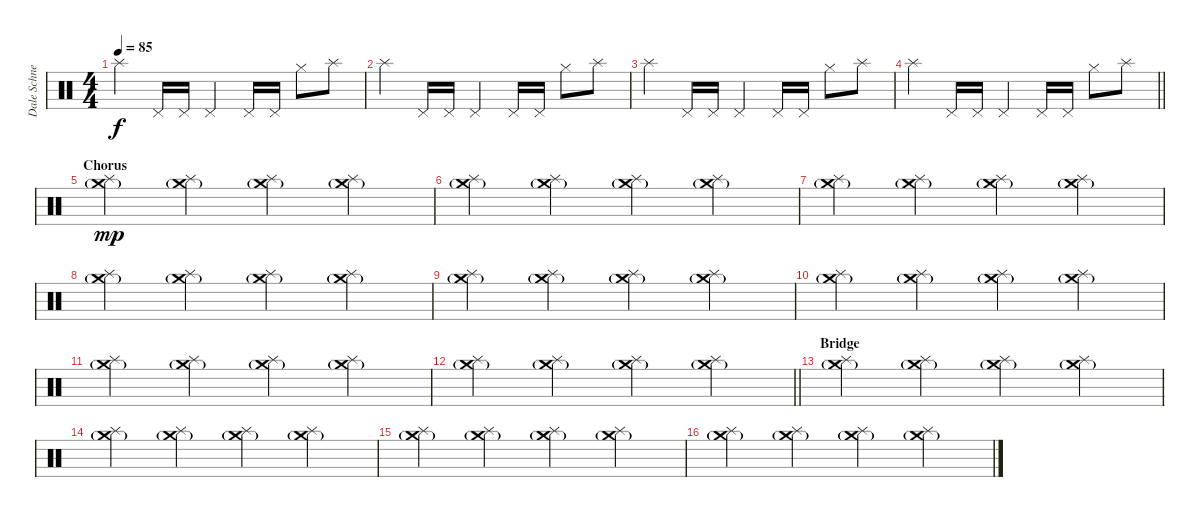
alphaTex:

\track ("Dale Schnettler (Drums)" "Dale Schne") {instrument percussion}
\staff {score}
\articulation defaults
\ts (4 4)
\tempo 85
\clef neutral
\ks c "Splash (hit)".4{dy f} "Pedal Hi-Hat (hit)".16 "Pedal Hi-Hat (hit)".16 "Pedal Hi-Hat (hit)".4 "Pedal Hi-Hat (hit)".16 "Pedal Hi-Hat (hit)".16 "Hi-Hat (closed)".8 "Splash (hit)".8
|
"Splash (hit)".4 "Pedal Hi-Hat (hit)".16 "Pedal Hi-Hat (hit)".16 "Pedal Hi-Hat (hit)".4 "Pedal Hi-Hat (hit)".16 "Pedal Hi-Hat (hit)".16 "Hi-Hat (closed)".8 "Splash (hit)".8 |
"Splash (hit)".4 "Pedal Hi-Hat (hit)".16 "Pedal Hi-Hat (hit)".16 "Pedal Hi-Hat (hit)".4 "Pedal Hi-Hat (hit)".16 "Pedal Hi-Hat (hit)".16 "Hi-Hat (closed)".8 "Splash (hit)".8 |
\barLineRight lightlight "Splash (hit)".4 "Pedal Hi-Hat (hit)".16 "Pedal Hi-Hat (hit)".16 "Pedal Hi-Hat (hit)".4 "Pedal Hi-Hat (hit)".16 "Pedal Hi-Hat (hit)".16 "Hi-Hat (closed)".8 "Splash (hit)".8
|
\section ("" "Chorus")
("Splash (hit)" "Crash medium (hit)"{g}).4{dy mp} ("Splash (hit)" "Crash medium (hit)"{g}).4 ("Splash (hit)" "Crash medium (hit)"{g}).4 ("Splash (hit)" "Crash medium (hit)"{g}).4 |
("Splash (hit)" "Crash medium (hit)"{g}).4 ("Splash (hit)" "Crash medium (hit)"{g}).4 ("Splash (hit)" "Crash medium (hit)"{g}).4 ("Splash (hit)" "Crash medium (hit)"{g}).4 |
("Splash (hit)" "Crash medium (hit)"{g}).4 ("Splash (hit)" "Crash medium (hit)"{g}).4 ("Splash (hit)" "Crash medium (hit)"{g}).4 ("Splash (hit)" "Crash medium (hit)"{g}).4 |
("Splash (hit)" "Crash medium (hit)"{g}).4 ("Splash (hit)" "Crash medium (hit)"{g}).4 ("Splash (hit)" "Crash medium (hit)"{g}).4 ("Splash (hit)" "Crash medium (hit)"{g}).4 |
("Splash (hit)" "Crash medium (hit)"{g}).4 ("Splash (hit)" "Crash medium (hit)"{g}).4 ("Splash (hit)" "Crash medium (hit)"{g}).4 ("Splash (hit)" "Crash medium (hit)"{g}).4 |
("Splash (hit)" "Crash medium (hit)"{g}).4 ("Splash (hit)" "Crash medium (hit)"{g}).4 ("Splash (hit)" "Crash medium (hit)"{g}).4 ("Splash (hit)" "Crash medium (hit)"{g}).4 |
("Splash (hit)" "Crash medium (hit)"{g}).4 ("Splash (hit)" "Crash medium (hit)"{g}).4 ("Splash (hit)" "Crash medium (hit)"{g}).4 ("Splash (hit)" "Crash medium (hit)"{g}).4 |
\barLineRight lightlight
("Splash (hit)" "Crash medium (hit)"{g}).4 ("Splash (hit)" "Crash medium (hit)"{g}).4 ("Splash (hit)" "Crash medium (hit)"{g}).4 ("Splash (hit)" "Crash medium (hit)"{g}).4 |
\section ("" "Bridge")
("Splash (hit)" "Crash medium (hit)"{g}).4 ("Splash (hit)" "Crash medium (hit)"{g}).4 ("Splash (hit)" "Crash medium (hit)"{g}).4 ("Splash (hit)" "Crash medium (hit)"{g}).4 |
("Splash (hit)" "Crash medium (hit)"{g}).4 ("Splash (hit)" "Crash medium (hit)"{g}).4 ("Splash (hit)" "Crash medium (hit)"{g}).4 ("Splash (hit)" "Crash medium (hit)"{g}).4 |
("Splash (hit)" "Crash medium (hit)"{g}).4 ("Splash (hit)" "Crash medium (hit)"{g}).4 ("Splash (hit)" "Crash medium (hit)"{g}).4 ("Splash (hit)" "Crash medium (hit)"{g}).4 |
("Splash (hit)" "Crash medium (hit)"{g}).4 ("Splash (hit)" "Crash medium (hit)"{g}).4 ("Splash (hit)" "Crash medium (hit)"{g}).4 ("Splash (hit)" "Crash medium (hit)"{g}).4
